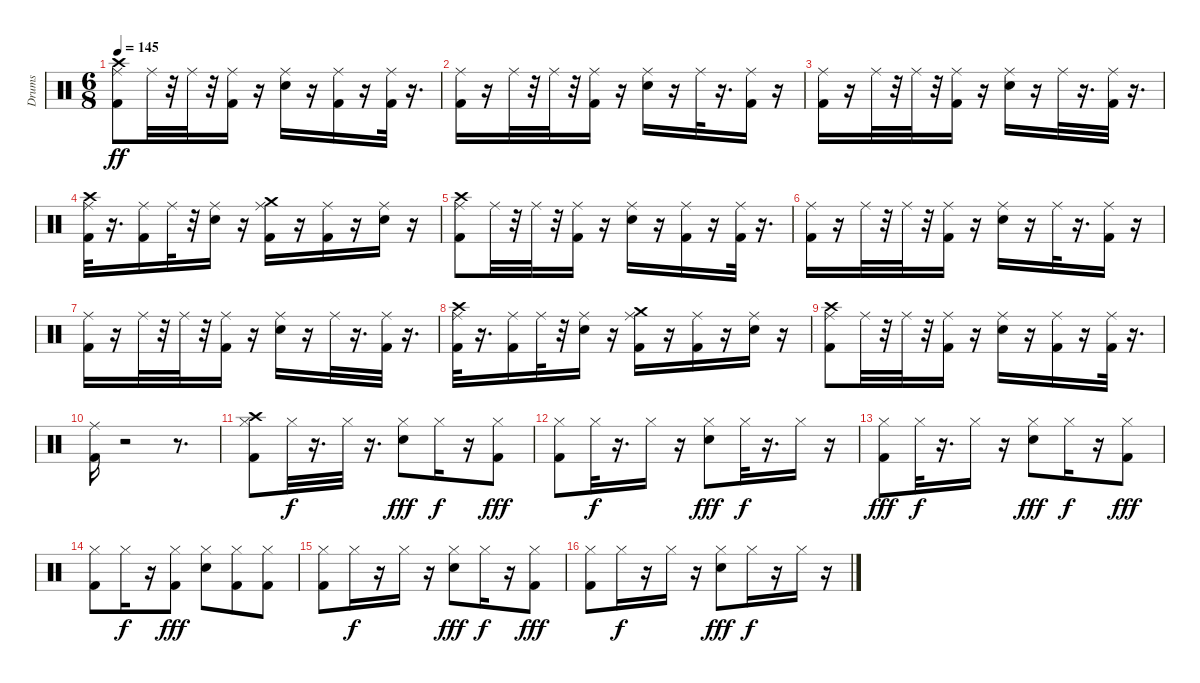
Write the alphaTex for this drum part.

\track ("Drums" "Drums") {instrument percussion}
\staff {score}
\articulation defaults
\ts (6 8)
\tempo 145
\clef neutral
\ks c
("Kick (hit) 2" "Ride (middle)" "Crash high (hit)").8{dy ff} "Ride (middle)".32 r.32 "Ride (middle)".32 r.32 ("Kick (hit) 2" "Ride (middle)").16 r.16 ("Snare (hit) 2" "Ride (middle)").16 r.16 ("Kick (hit) 2" "Ride (middle)").16 r.16 ("Kick (hit) 2" "Ride (middle)").32 r.16{d} |
("Kick (hit) 2" "Ride (middle)").16 r.16 "Ride (middle)".32 r.32 "Ride (middle)".32 r.32 ("Kick (hit) 2" "Ride (middle)").16 r.16 ("Snare (hit) 2" "Ride (middle)").16 r.16 "Ride (middle)".32 r.16{d} ("Kick (hit) 2" "Ride (middle)").16 r.16 |
("Kick (hit) 2" "Ride (middle)").16 r.16 "Ride (middle)".32 r.32 "Ride (middle)".32 r.32 ("Kick (hit) 2" "Ride (middle)").16 r.16 ("Snare (hit) 2" "Ride (middle)").16 r.16 "Ride (middle)".32 r.16{d} ("Kick (hit) 2" "Ride (middle)").32 r.16{d} |
("Kick (hit) 2" "Ride (middle)" "Crash high (hit)").32 r.16{d} ("Kick (hit) 2" "Ride (middle)").16 "Ride (middle)".32 r.32 ("Snare (hit) 2" "Ride (middle)").16 r.16 ("Kick (hit) 2" "Ride (middle)" "Crash medium (hit)").16 r.16 ("Kick (hit) 2" "Ride (middle)").16 r.16 ("Snare (hit) 2" "Ride (middle)").16 r.16 |
("Kick (hit) 2" "Ride (middle)" "Crash high (hit)").8 "Ride (middle)".32 r.32 "Ride (middle)".32 r.32 ("Kick (hit) 2" "Ride (middle)").16 r.16 ("Snare (hit) 2" "Ride (middle)").16 r.16 ("Kick (hit) 2" "Ride (middle)").16 r.16 ("Kick (hit) 2" "Ride (middle)").32 r.16{d} |
("Kick (hit) 2" "Ride (middle)").16 r.16 "Ride (middle)".32 r.32 "Ride (middle)".32 r.32 ("Kick (hit) 2" "Ride (middle)").16 r.16 ("Snare (hit) 2" "Ride (middle)").16 r.16 "Ride (middle)".32 r.16{d} ("Kick (hit) 2" "Ride (middle)").16 r.16 |
("Kick (hit) 2" "Ride (middle)").16 r.16 "Ride (middle)".32 r.32 "Ride (middle)".32 r.32 ("Kick (hit) 2" "Ride (middle)").16 r.16 ("Snare (hit) 2" "Ride (middle)").16 r.16 "Ride (middle)".32 r.16{d} ("Kick (hit) 2" "Ride (middle)").32 r.16{d} |
("Kick (hit) 2" "Ride (middle)" "Crash high (hit)").32 r.16{d} ("Kick (hit) 2" "Ride (middle)").16 "Ride (middle)".32 r.32 ("Snare (hit) 2" "Ride (middle)").16 r.16 ("Kick (hit) 2" "Ride (middle)" "Crash medium (hit)").16 r.16 ("Kick (hit) 2" "Ride (middle)").16 r.16 ("Snare (hit) 2" "Ride (middle)").16 r.16 |
("Kick (hit) 2" "Ride (middle)" "Crash high (hit)").8 "Ride (middle)".32 r.32 "Ride (middle)".32 r.32 ("Kick (hit) 2" "Ride (middle)").16 r.16 ("Snare (hit) 2" "Ride (middle)").16 r.16 ("Kick (hit) 2" "Ride (middle)").16 r.16 ("Kick (hit) 2" "Ride (middle)").32 r.16{d} |
("Kick (hit) 2" "Ride (middle)").16 r.2 r.8{d} |
("Kick (hit) 2" "Hi-Hat (closed)" "Crash high (hit)").8 "Hi-Hat (closed)".32{dy f} r.16{d} "Hi-Hat (closed)".32 r.16{d} ("Snare (hit) 2" "Hi-Hat (closed)").8{dy fff} "Hi-Hat (closed)".16{dy f} r.16 ("Kick (hit) 2" "Hi-Hat (closed)").8{dy fff} |
("Kick (hit) 2" "Hi-Hat (closed)").8 "Hi-Hat (closed)".32{dy f} r.16{d} "Hi-Hat (closed)".16 r.16 ("Snare (hit) 2" "Hi-Hat (closed)").8{dy fff} "Hi-Hat (closed)".32{dy f} r.16{d} "Hi-Hat (closed)".16 r.16 |
("Kick (hit) 2" "Hi-Hat (closed)").8{dy fff} "Hi-Hat (closed)".32{dy f} r.16{d} "Hi-Hat (closed)".16 r.16 ("Snare (hit) 2" "Hi-Hat (closed)").8{dy fff} "Hi-Hat (closed)".16{dy f} r.16 ("Kick (hit) 2" "Hi-Hat (closed)").8{dy fff} |
("Kick (hit) 2" "Hi-Hat (closed)").8 "Hi-Hat (closed)".16{dy f} r.16 ("Kick (hit) 2" "Hi-Hat (closed)").8{dy fff} ("Snare (hit) 2" "Hi-Hat (closed)").8 ("Kick (hit) 2" "Hi-Hat (closed)").8 ("Kick (hit) 2" "Hi-Hat (closed)").8 |
("Kick (hit) 2" "Hi-Hat (closed)").8 "Hi-Hat (closed)".16{dy f} r.16 "Hi-Hat (closed)".16 r.16 ("Snare (hit) 2" "Hi-Hat (closed)").8{dy fff} "Hi-Hat (closed)".16{dy f} r.16 ("Kick (hit) 2" "Hi-Hat (closed)").8{dy fff} |
("Kick (hit) 2" "Hi-Hat (closed)").8 "Hi-Hat (closed)".16{dy f} r.16 "Hi-Hat (closed)".16 r.16 ("Snare (hit) 2" "Hi-Hat (closed)").8{dy fff} "Hi-Hat (closed)".16{dy f} r.16 "Hi-Hat (closed)".16 r.16
